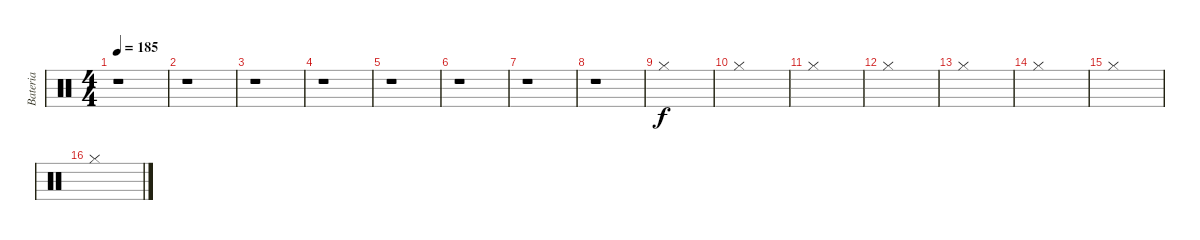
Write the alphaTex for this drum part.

\track ("Bateria" "Bateria") {instrument percussion}
\staff {score}
\articulation defaults
\ts (4 4)
\tempo 185
\tempo 100
\tempo 185
\clef neutral
\ks c
r.1{dy f} |
r.1 |
r.1 |
r.1 |
r.1 |
r.1 |
r.1 |
r.1 |
"Hi-Hat (closed)".1 |
"Hi-Hat (closed)".1 |
"Hi-Hat (closed)".1 |
"Hi-Hat (closed)".1 |
"Hi-Hat (closed)".1 |
"Hi-Hat (closed)".1 |
"Hi-Hat (closed)".1 |
"Hi-Hat (closed)".1
